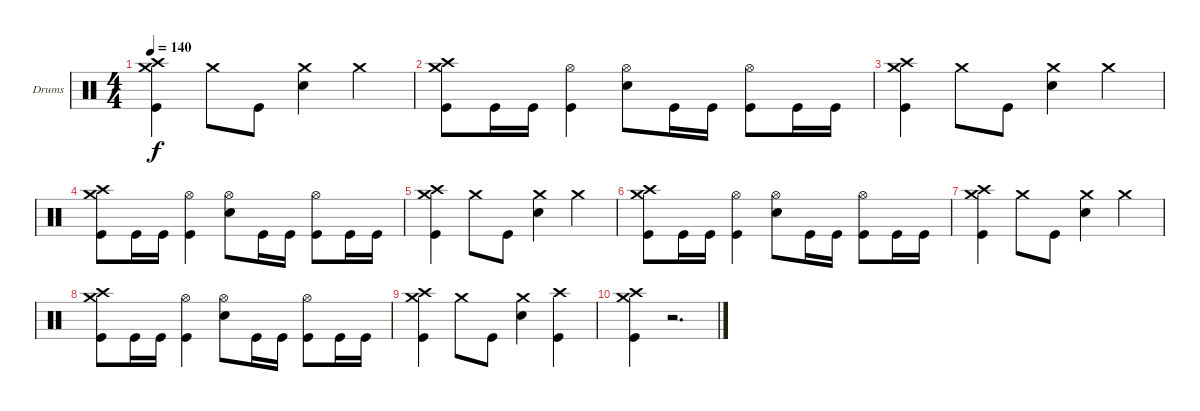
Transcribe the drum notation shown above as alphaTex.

\bracketExtendMode groupsimilarinstruments
\firstSystemTrackNameOrientation horizontal
\otherSystemsTrackNameOrientation horizontal
\track ("Drumkit" "Drums") {instrument percussion}
\staff {score}
\articulation defaults
\ts (4 4)
\tempo 140
\clef neutral
\ks c
("Crash medium (hit)" "Crash high (hit)" "Kick (hit)").4{dy f} "Crash medium (hit)".8 "Kick (hit)".8 ("Crash medium (hit)" "Snare (hit) 2").4 "Crash medium (hit)".4 |
("Crash medium (hit)" "Crash high (hit)" "Kick (hit)").8 "Kick (hit)".16 "Kick (hit)".16 ("Hi-Hat (open)" "Kick (hit)").4 ("Hi-Hat (open)" "Snare (hit) 2").8 "Kick (hit)".16 "Kick (hit)".16 ("Hi-Hat (open)" "Kick (hit)").8 "Kick (hit)".16 "Kick (hit)".16 |
("Crash medium (hit)" "Crash high (hit)" "Kick (hit)").4 "Crash medium (hit)".8 "Kick (hit)".8 ("Crash medium (hit)" "Snare (hit) 2").4 "Crash medium (hit)".4 |
("Crash medium (hit)" "Crash high (hit)" "Kick (hit)").8 "Kick (hit)".16 "Kick (hit)".16 ("Hi-Hat (open)" "Kick (hit)").4 ("Hi-Hat (open)" "Snare (hit) 2").8 "Kick (hit)".16 "Kick (hit)".16 ("Hi-Hat (open)" "Kick (hit)").8 "Kick (hit)".16 "Kick (hit)".16 |
("Crash medium (hit)" "Crash high (hit)" "Kick (hit)").4 "Crash medium (hit)".8 "Kick (hit)".8 ("Crash medium (hit)" "Snare (hit) 2").4 "Crash medium (hit)".4 |
("Crash medium (hit)" "Crash high (hit)" "Kick (hit)").8 "Kick (hit)".16 "Kick (hit)".16 ("Hi-Hat (open)" "Kick (hit)").4 ("Hi-Hat (open)" "Snare (hit) 2").8 "Kick (hit)".16 "Kick (hit)".16 ("Hi-Hat (open)" "Kick (hit)").8 "Kick (hit)".16 "Kick (hit)".16 |
("Crash medium (hit)" "Crash high (hit)" "Kick (hit)").4 "Crash medium (hit)".8 "Kick (hit)".8 ("Crash medium (hit)" "Snare (hit) 2").4 "Crash medium (hit)".4 |
("Crash medium (hit)" "Crash high (hit)" "Kick (hit)").8 "Kick (hit)".16 "Kick (hit)".16 ("Hi-Hat (open)" "Kick (hit)").4 ("Hi-Hat (open)" "Snare (hit) 2").8 "Kick (hit)".16 "Kick (hit)".16 ("Hi-Hat (open)" "Kick (hit)").8 "Kick (hit)".16 "Kick (hit)".16 |
("Crash medium (hit)" "Crash high (hit)" "Kick (hit)").4 "Crash medium (hit)".8 "Kick (hit)".8 ("Crash medium (hit)" "Snare (hit) 2").4 ("Crash high (hit)" "Kick (hit)").4 |
("Crash medium (hit)" "Crash high (hit)" "Kick (hit)").4 r.2{d}
